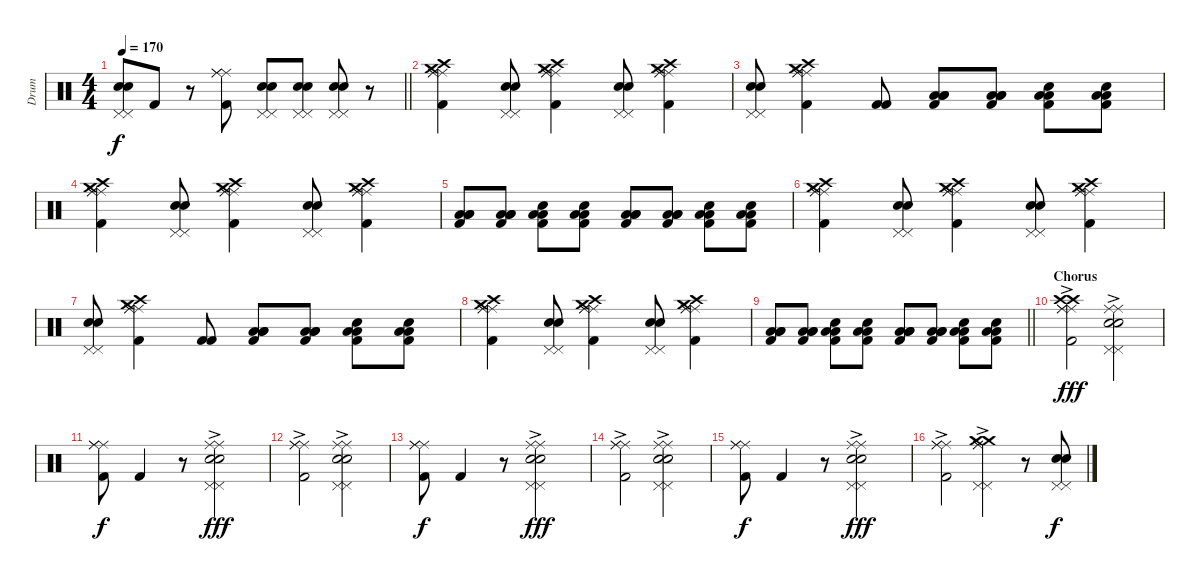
\track ("Drum" "Drum") {instrument percussion}
\staff {score}
\articulation defaults
\ts (4 4)
\tempo 170
\clef neutral
\barLineRight lightlight
\ks c
("Electric Snare (hit)" "Electric Snare (hit)" "Pedal Hi-Hat (hit)" "Pedal Hi-Hat (hit)").8{dy f} "Kick (hit) 2".8 r.8 ("Kick (hit) 2" "Ride (middle)" "Ride (middle)" "Ride (middle)").8 ("Electric Snare (hit)" "Electric Snare (hit)" "Pedal Hi-Hat (hit)" "Pedal Hi-Hat (hit)").8 ("Electric Snare (hit)" "Electric Snare (hit)" "Pedal Hi-Hat (hit)" "Pedal Hi-Hat (hit)").8 ("Electric Snare (hit)" "Electric Snare (hit)" "Pedal Hi-Hat (hit)" "Pedal Hi-Hat (hit)").8 r.8 |
("Crash high (hit)" "Crash medium (hit)" "Kick (hit) 2" "Ride (middle)" "Ride (middle)" "Ride (middle)").4 ("Electric Snare (hit)" "Electric Snare (hit)" "Pedal Hi-Hat (hit)" "Pedal Hi-Hat (hit)").8 ("Crash high (hit)" "Crash medium (hit)" "Kick (hit) 2" "Ride (middle)" "Ride (middle)" "Ride (middle)").4 ("Electric Snare (hit)" "Electric Snare (hit)" "Pedal Hi-Hat (hit)" "Pedal Hi-Hat (hit)").8 ("Crash high (hit)" "Crash medium (hit)" "Kick (hit) 2" "Ride (middle)" "Ride (middle)" "Ride (middle)").4 |
("Electric Snare (hit)" "Electric Snare (hit)" "Pedal Hi-Hat (hit)" "Pedal Hi-Hat (hit)").8 ("Crash high (hit)" "Crash medium (hit)" "Kick (hit) 2" "Ride (middle)" "Ride (middle)" "Ride (middle)").4 ("Kick (hit) 2" "Kick (hit) 2").8 ("Low Tom (hit)" "Low Tom (hit)" "Low Floor Tom (hit)" "Kick (hit) 2").8 ("Low Tom (hit)" "Low Tom (hit)" "Low Floor Tom (hit)" "Kick (hit) 2").8 ("Low Tom (hit)" "Electric Snare (hit)" "Low Floor Tom (hit)" "Kick (hit) 2").8 ("Low Tom (hit)" "Electric Snare (hit)" "Low Floor Tom (hit)" "Kick (hit) 2").8 |
("Crash high (hit)" "Crash medium (hit)" "Kick (hit) 2" "Ride (middle)" "Ride (middle)" "Ride (middle)").4 ("Electric Snare (hit)" "Electric Snare (hit)" "Pedal Hi-Hat (hit)" "Pedal Hi-Hat (hit)").8 ("Crash high (hit)" "Crash medium (hit)" "Kick (hit) 2" "Ride (middle)" "Ride (middle)" "Ride (middle)").4 ("Electric Snare (hit)" "Electric Snare (hit)" "Pedal Hi-Hat (hit)" "Pedal Hi-Hat (hit)").8 ("Crash high (hit)" "Crash medium (hit)" "Kick (hit) 2" "Ride (middle)" "Ride (middle)" "Ride (middle)").4 |
("Low Tom (hit)" "Low Tom (hit)" "Low Floor Tom (hit)" "Kick (hit) 2").8 ("Low Tom (hit)" "Low Tom (hit)" "Low Floor Tom (hit)" "Kick (hit) 2").8 ("Low Tom (hit)" "Electric Snare (hit)" "Low Floor Tom (hit)" "Kick (hit) 2").8 ("Low Tom (hit)" "Electric Snare (hit)" "Low Floor Tom (hit)" "Kick (hit) 2").8 ("Low Tom (hit)" "Low Tom (hit)" "Low Floor Tom (hit)" "Kick (hit) 2").8 ("Low Tom (hit)" "Low Tom (hit)" "Low Floor Tom (hit)" "Kick (hit) 2").8 ("Low Tom (hit)" "Electric Snare (hit)" "Low Floor Tom (hit)" "Kick (hit) 2").8 ("Low Tom (hit)" "Electric Snare (hit)" "Low Floor Tom (hit)" "Kick (hit) 2").8 |
("Crash high (hit)" "Crash medium (hit)" "Kick (hit) 2" "Ride (middle)" "Ride (middle)" "Ride (middle)").4 ("Electric Snare (hit)" "Electric Snare (hit)" "Pedal Hi-Hat (hit)" "Pedal Hi-Hat (hit)").8 ("Crash high (hit)" "Crash medium (hit)" "Kick (hit) 2" "Ride (middle)" "Ride (middle)" "Ride (middle)").4 ("Electric Snare (hit)" "Electric Snare (hit)" "Pedal Hi-Hat (hit)" "Pedal Hi-Hat (hit)").8 ("Crash high (hit)" "Crash medium (hit)" "Kick (hit) 2" "Ride (middle)" "Ride (middle)" "Ride (middle)").4 |
("Electric Snare (hit)" "Electric Snare (hit)" "Pedal Hi-Hat (hit)" "Pedal Hi-Hat (hit)").8 ("Crash high (hit)" "Crash medium (hit)" "Kick (hit) 2" "Ride (middle)" "Ride (middle)" "Ride (middle)").4 ("Kick (hit) 2" "Kick (hit) 2").8 ("Low Tom (hit)" "Low Tom (hit)" "Low Floor Tom (hit)" "Kick (hit) 2").8 ("Low Tom (hit)" "Low Tom (hit)" "Low Floor Tom (hit)" "Kick (hit) 2").8 ("Low Tom (hit)" "Electric Snare (hit)" "Low Floor Tom (hit)" "Kick (hit) 2").8 ("Low Tom (hit)" "Electric Snare (hit)" "Low Floor Tom (hit)" "Kick (hit) 2").8 |
("Crash high (hit)" "Crash medium (hit)" "Kick (hit) 2" "Ride (middle)" "Ride (middle)" "Ride (middle)").4 ("Electric Snare (hit)" "Electric Snare (hit)" "Pedal Hi-Hat (hit)" "Pedal Hi-Hat (hit)").8 ("Crash high (hit)" "Crash medium (hit)" "Kick (hit) 2" "Ride (middle)" "Ride (middle)" "Ride (middle)").4 ("Electric Snare (hit)" "Electric Snare (hit)" "Pedal Hi-Hat (hit)" "Pedal Hi-Hat (hit)").8 ("Crash high (hit)" "Crash medium (hit)" "Kick (hit) 2" "Ride (middle)" "Ride (middle)" "Ride (middle)").4 |
\barLineRight lightlight
("Low Tom (hit)" "Low Tom (hit)" "Low Floor Tom (hit)" "Kick (hit) 2").8 ("Low Tom (hit)" "Low Tom (hit)" "Low Floor Tom (hit)" "Kick (hit) 2").8 ("Low Tom (hit)" "Electric Snare (hit)" "Low Floor Tom (hit)" "Kick (hit) 2").8 ("Low Tom (hit)" "Electric Snare (hit)" "Low Floor Tom (hit)" "Kick (hit) 2").8 ("Low Tom (hit)" "Low Tom (hit)" "Low Floor Tom (hit)" "Kick (hit) 2").8 ("Low Tom (hit)" "Low Tom (hit)" "Low Floor Tom (hit)" "Kick (hit) 2").8 ("Low Tom (hit)" "Electric Snare (hit)" "Low Floor Tom (hit)" "Kick (hit) 2").8 ("Low Tom (hit)" "Electric Snare (hit)" "Low Floor Tom (hit)" "Kick (hit) 2").8 |
\section ("" "Chorus")
("Crash high (hit)" "Crash high (hit)" "Kick (hit) 2" "Ride (middle)" "Ride (middle)" "Ride (middle)"{ac}).2{dy fff} ("Electric Snare (hit)" "Electric Snare (hit)" "Pedal Hi-Hat (hit)" "Pedal Hi-Hat (hit)" "Ride (middle)" "Ride (middle)"{ac}).2 |
("Kick (hit) 2" "Ride (middle)" "Ride (middle)" "Ride (middle)").8{dy f} "Kick (hit) 2".4 r.8 ("Electric Snare (hit)" "Electric Snare (hit)" "Pedal Hi-Hat (hit)" "Pedal Hi-Hat (hit)" "Ride (middle)" "Ride (middle)"{ac}).2{dy fff} |
("Kick (hit) 2" "Ride (middle)" "Ride (middle)" "Ride (middle)"{ac}).2 ("Electric Snare (hit)" "Electric Snare (hit)" "Pedal Hi-Hat (hit)" "Pedal Hi-Hat (hit)" "Ride (middle)" "Ride (middle)"{ac}).2 |
("Kick (hit) 2" "Ride (middle)" "Ride (middle)" "Ride (middle)").8{dy f} "Kick (hit) 2".4 r.8 ("Electric Snare (hit)" "Electric Snare (hit)" "Pedal Hi-Hat (hit)" "Pedal Hi-Hat (hit)" "Ride (middle)" "Ride (middle)"{ac}).2{dy fff} |
("Kick (hit) 2" "Ride (middle)" "Ride (middle)" "Ride (middle)"{ac}).2 ("Electric Snare (hit)" "Electric Snare (hit)" "Pedal Hi-Hat (hit)" "Pedal Hi-Hat (hit)" "Ride (middle)" "Ride (middle)"{ac}).2 |
("Kick (hit) 2" "Ride (middle)" "Ride (middle)" "Ride (middle)").8{dy f} "Kick (hit) 2".4 r.8 ("Electric Snare (hit)" "Electric Snare (hit)" "Pedal Hi-Hat (hit)" "Pedal Hi-Hat (hit)" "Ride (middle)" "Ride (middle)"{ac}).2{dy fff} |
("Kick (hit) 2" "Ride (middle)" "Ride (middle)" "Ride (middle)"{ac}).2 ("Crash medium (hit)" "Crash medium (hit)" "Pedal Hi-Hat (hit)" "Pedal Hi-Hat (hit)" "Ride (middle)" "Ride (middle)"{ac}).4 r.8 ("Electric Snare (hit)" "Electric Snare (hit)" "Pedal Hi-Hat (hit)" "Pedal Hi-Hat (hit)").8{dy f}
